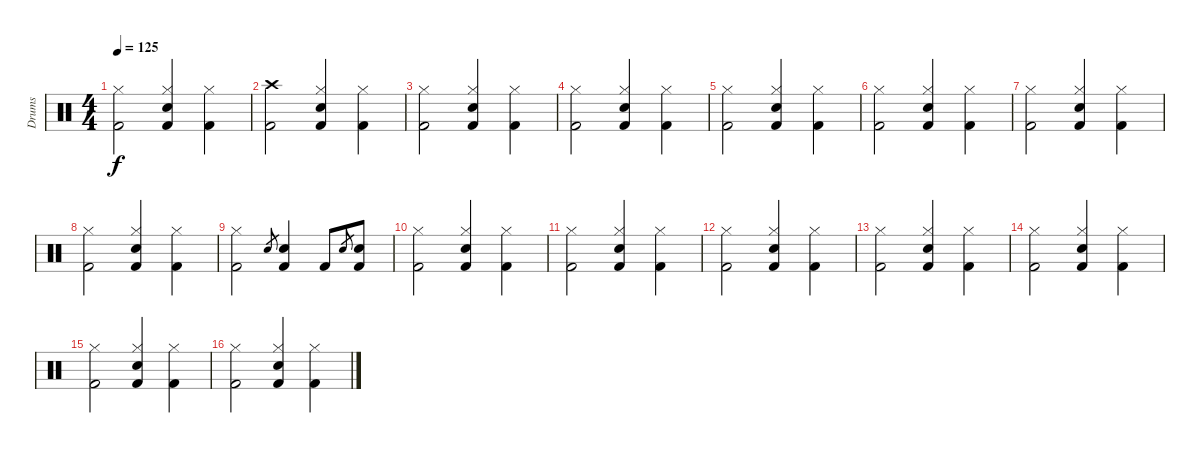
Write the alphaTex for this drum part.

\track ("Drums" "Drums") {instrument percussion}
\staff {score}
\articulation defaults
\ts (4 4)
\tempo 125
\clef neutral
\ks c
("Kick (hit) 2" "Hi-Hat (closed)").2{dy f} ("Hi-Hat (closed)" "Snare (hit) 2" "Kick (hit) 2").4 ("Hi-Hat (closed)" "Kick (hit) 2").4 |
("Crash high (hit)" "Kick (hit) 2").2 ("Hi-Hat (closed)" "Snare (hit) 2" "Kick (hit) 2").4 ("Hi-Hat (closed)" "Kick (hit) 2").4 |
("Kick (hit) 2" "Hi-Hat (closed)").2 ("Hi-Hat (closed)" "Snare (hit) 2" "Kick (hit) 2").4 ("Hi-Hat (closed)" "Kick (hit) 2").4 |
("Kick (hit) 2" "Hi-Hat (closed)").2 ("Hi-Hat (closed)" "Snare (hit) 2" "Kick (hit) 2").4 ("Hi-Hat (closed)" "Kick (hit) 2").4 |
("Kick (hit) 2" "Hi-Hat (closed)").2 ("Hi-Hat (closed)" "Snare (hit) 2" "Kick (hit) 2").4 ("Hi-Hat (closed)" "Kick (hit) 2").4 |
("Kick (hit) 2" "Hi-Hat (closed)").2 ("Hi-Hat (closed)" "Snare (hit) 2" "Kick (hit) 2").4 ("Hi-Hat (closed)" "Kick (hit) 2").4 |
("Kick (hit) 2" "Hi-Hat (closed)").2 ("Hi-Hat (closed)" "Snare (hit) 2" "Kick (hit) 2").4 ("Hi-Hat (closed)" "Kick (hit) 2").4 |
("Kick (hit) 2" "Hi-Hat (closed)").2 ("Hi-Hat (closed)" "Snare (hit) 2" "Kick (hit) 2").4 ("Hi-Hat (closed)" "Kick (hit) 2").4 |
("Kick (hit) 2" "Hi-Hat (closed)").2 "Snare (hit) 2".8{gr} ("Snare (hit) 2" "Kick (hit) 2").4 "Kick (hit) 2".8 "Snare (hit) 2".8{gr} ("Kick (hit) 2" "Snare (hit) 2").8 |
("Kick (hit) 2" "Hi-Hat (closed)").2 ("Hi-Hat (closed)" "Snare (hit) 2" "Kick (hit) 2").4 ("Hi-Hat (closed)" "Kick (hit) 2").4 |
("Kick (hit) 2" "Hi-Hat (closed)").2 ("Hi-Hat (closed)" "Snare (hit) 2" "Kick (hit) 2").4 ("Hi-Hat (closed)" "Kick (hit) 2").4 |
("Kick (hit) 2" "Hi-Hat (closed)").2 ("Hi-Hat (closed)" "Snare (hit) 2" "Kick (hit) 2").4 ("Hi-Hat (closed)" "Kick (hit) 2").4 |
("Kick (hit) 2" "Hi-Hat (closed)").2 ("Hi-Hat (closed)" "Snare (hit) 2" "Kick (hit) 2").4 ("Hi-Hat (closed)" "Kick (hit) 2").4 |
("Kick (hit) 2" "Hi-Hat (closed)").2 ("Hi-Hat (closed)" "Snare (hit) 2" "Kick (hit) 2").4 ("Hi-Hat (closed)" "Kick (hit) 2").4 |
("Kick (hit) 2" "Hi-Hat (closed)").2 ("Hi-Hat (closed)" "Snare (hit) 2" "Kick (hit) 2").4 ("Hi-Hat (closed)" "Kick (hit) 2").4 |
("Kick (hit) 2" "Hi-Hat (closed)").2 ("Hi-Hat (closed)" "Snare (hit) 2" "Kick (hit) 2").4 ("Hi-Hat (closed)" "Kick (hit) 2").4
